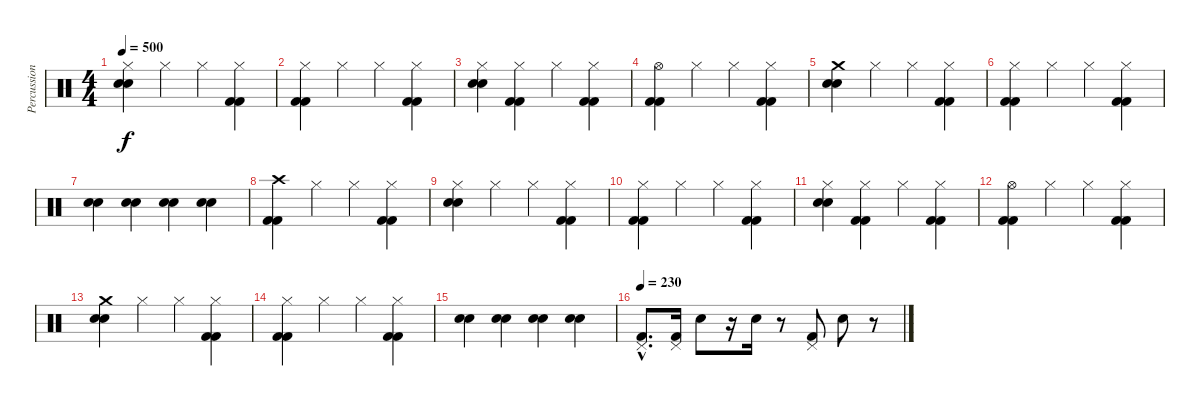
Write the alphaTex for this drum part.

\track ("Percussion" "Percussion") {instrument percussion}
\staff {score}
\articulation defaults
\ts (4 4)
\tempo 500
\clef neutral
\ks c
("Hi-Hat (closed)" "Electric Snare (hit)" "Electric Snare (hit)").4{dy f} "Hi-Hat (closed)".4 "Hi-Hat (closed)".4 ("Hi-Hat (closed)" "Kick (hit) 2" "Kick (hit) 2").4 |
("Hi-Hat (closed)" "Kick (hit) 2" "Kick (hit) 2").4 "Hi-Hat (closed)".4 "Hi-Hat (closed)".4 ("Hi-Hat (closed)" "Kick (hit) 2" "Kick (hit) 2").4 |
("Hi-Hat (closed)" "Electric Snare (hit)" "Electric Snare (hit)").4 ("Hi-Hat (closed)" "Kick (hit) 2" "Kick (hit) 2").4 "Hi-Hat (closed)".4 ("Hi-Hat (closed)" "Kick (hit) 2" "Kick (hit) 2").4 |
("Hi-Hat (open)" "Kick (hit) 2" "Kick (hit) 2").4 "Hi-Hat (closed)".4 "Hi-Hat (closed)".4 ("Hi-Hat (closed)" "Kick (hit) 2" "Kick (hit) 2").4 |
("Crash medium (hit)" "Electric Snare (hit)" "Electric Snare (hit)").4 "Hi-Hat (closed)".4 "Hi-Hat (closed)".4 ("Hi-Hat (closed)" "Kick (hit) 2" "Kick (hit) 2").4 |
("Hi-Hat (closed)" "Kick (hit) 2" "Kick (hit) 2").4 "Hi-Hat (closed)".4 "Hi-Hat (closed)".4 ("Hi-Hat (closed)" "Kick (hit) 2" "Kick (hit) 2").4 |
("Electric Snare (hit)" "Electric Snare (hit)").4 ("Electric Snare (hit)" "Electric Snare (hit)").4 ("Electric Snare (hit)" "Electric Snare (hit)").4 ("Electric Snare (hit)" "Electric Snare (hit)").4 |
("Crash high (hit)" "Kick (hit) 2" "Kick (hit) 2").4 "Hi-Hat (closed)".4 "Hi-Hat (closed)".4 ("Hi-Hat (closed)" "Kick (hit) 2" "Kick (hit) 2").4 |
("Hi-Hat (closed)" "Electric Snare (hit)" "Electric Snare (hit)").4 "Hi-Hat (closed)".4 "Hi-Hat (closed)".4 ("Hi-Hat (closed)" "Kick (hit) 2" "Kick (hit) 2").4 |
("Hi-Hat (closed)" "Kick (hit) 2" "Kick (hit) 2").4 "Hi-Hat (closed)".4 "Hi-Hat (closed)".4 ("Hi-Hat (closed)" "Kick (hit) 2" "Kick (hit) 2").4 |
("Hi-Hat (closed)" "Electric Snare (hit)" "Electric Snare (hit)").4 ("Hi-Hat (closed)" "Kick (hit) 2" "Kick (hit) 2").4 "Hi-Hat (closed)".4 ("Hi-Hat (closed)" "Kick (hit) 2" "Kick (hit) 2").4 |
("Hi-Hat (open)" "Kick (hit) 2" "Kick (hit) 2").4 "Hi-Hat (closed)".4 "Hi-Hat (closed)".4 ("Hi-Hat (closed)" "Kick (hit) 2" "Kick (hit) 2").4 |
("Crash medium (hit)" "Electric Snare (hit)" "Electric Snare (hit)").4 "Hi-Hat (closed)".4 "Hi-Hat (closed)".4 ("Hi-Hat (closed)" "Kick (hit) 2" "Kick (hit) 2").4 |
("Hi-Hat (closed)" "Kick (hit) 2" "Kick (hit) 2").4 "Hi-Hat (closed)".4 "Hi-Hat (closed)".4 ("Hi-Hat (closed)" "Kick (hit) 2" "Kick (hit) 2").4 |
("Electric Snare (hit)" "Electric Snare (hit)").4 ("Electric Snare (hit)" "Electric Snare (hit)").4 ("Electric Snare (hit)" "Electric Snare (hit)").4 ("Electric Snare (hit)" "Electric Snare (hit)").4 |
\tempo 230
("Pedal Hi-Hat (hit)"{hac} "Kick (hit) 2"{hac}).8{d} ("Pedal Hi-Hat (hit)" "Kick (hit) 2").16 "Snare (hit) 2".8 r.16 "Snare (hit) 2".16 r.8 ("Pedal Hi-Hat (hit)" "Kick (hit) 2").8 "Snare (hit) 2".8 r.8
